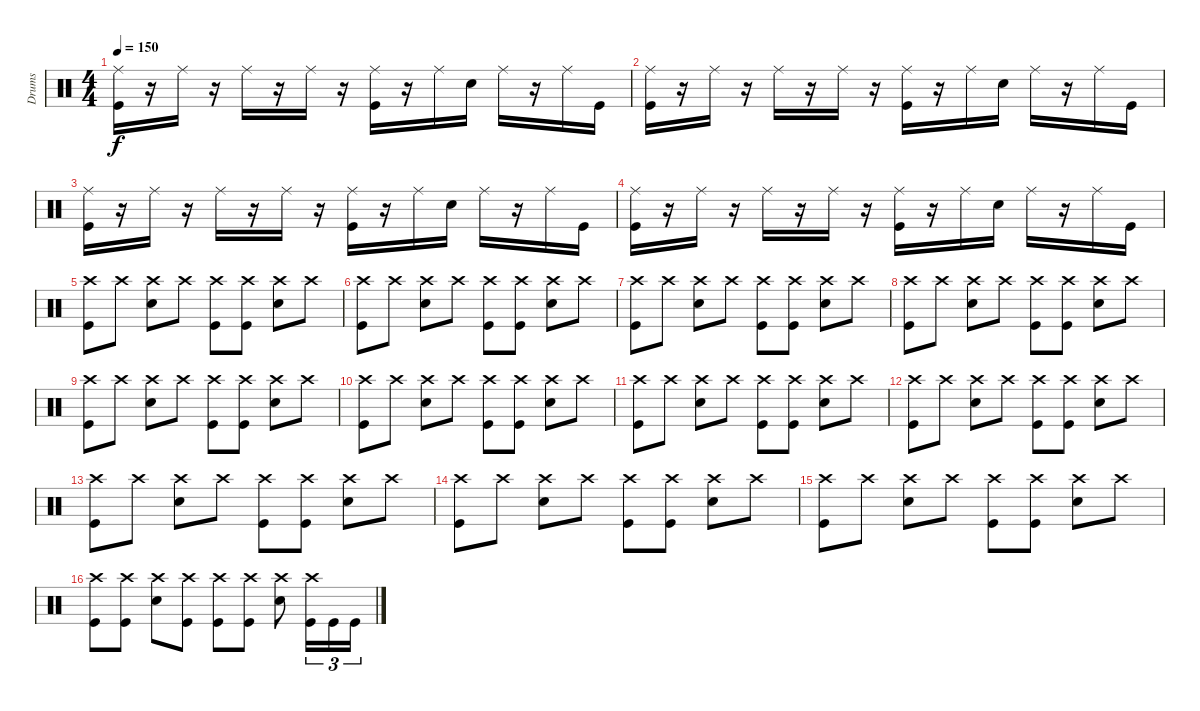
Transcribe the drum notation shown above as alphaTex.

\track ("Drums" "Drums") {instrument percussion}
\staff {score}
\articulation defaults
\ts (4 4)
\tempo 150
\clef neutral
\ks c
("Ride (middle)" "Kick (hit)").16{dy f} r.16 "Ride (middle)".16 r.16 "Ride (middle)".16 r.16 "Ride (middle)".16 r.16 ("Ride (middle)" "Kick (hit)").16 r.16 "Ride (middle)".16 "Snare (hit) 2".16 "Ride (middle)".16 r.16 "Ride (middle)".16 "Kick (hit)".16 |
("Ride (middle)" "Kick (hit)").16 r.16 "Ride (middle)".16 r.16 "Ride (middle)".16 r.16 "Ride (middle)".16 r.16 ("Ride (middle)" "Kick (hit)").16 r.16 "Ride (middle)".16 "Snare (hit) 2".16 "Ride (middle)".16 r.16 "Ride (middle)".16 "Kick (hit)".16 |
("Ride (middle)" "Kick (hit)").16 r.16 "Ride (middle)".16 r.16 "Ride (middle)".16 r.16 "Ride (middle)".16 r.16 ("Ride (middle)" "Kick (hit)").16 r.16 "Ride (middle)".16 "Snare (hit) 2".16 "Ride (middle)".16 r.16 "Ride (middle)".16 "Kick (hit)".16 |
("Ride (middle)" "Kick (hit)").16 r.16 "Ride (middle)".16 r.16 "Ride (middle)".16 r.16 "Ride (middle)".16 r.16 ("Ride (middle)" "Kick (hit)").16 r.16 "Ride (middle)".16 "Snare (hit) 2".16 "Ride (middle)".16 r.16 "Ride (middle)".16 "Kick (hit)".16 |
("Crash high (hit)" "Kick (hit)").8 "Crash high (hit)".8 ("Crash high (hit)" "Snare (hit) 2").8 "Crash high (hit)".8 ("Crash high (hit)" "Kick (hit)").8 ("Crash high (hit)" "Kick (hit)").8 ("Crash high (hit)" "Snare (hit) 2").8 "Crash high (hit)".8 |
("Crash high (hit)" "Kick (hit)").8 "Crash high (hit)".8 ("Crash high (hit)" "Snare (hit) 2").8 "Crash high (hit)".8 ("Crash high (hit)" "Kick (hit)").8 ("Crash high (hit)" "Kick (hit)").8 ("Crash high (hit)" "Snare (hit) 2").8 "Crash high (hit)".8 |
("Crash high (hit)" "Kick (hit)").8 "Crash high (hit)".8 ("Crash high (hit)" "Snare (hit) 2").8 "Crash high (hit)".8 ("Crash high (hit)" "Kick (hit)").8 ("Crash high (hit)" "Kick (hit)").8 ("Crash high (hit)" "Snare (hit) 2").8 "Crash high (hit)".8 |
("Crash high (hit)" "Kick (hit)").8 "Crash high (hit)".8 ("Crash high (hit)" "Snare (hit) 2").8 "Crash high (hit)".8 ("Crash high (hit)" "Kick (hit)").8 ("Crash high (hit)" "Kick (hit)").8 ("Crash high (hit)" "Snare (hit) 2").8 "Crash high (hit)".8 |
("Crash high (hit)" "Kick (hit)").8 "Crash high (hit)".8 ("Crash high (hit)" "Snare (hit) 2").8 "Crash high (hit)".8 ("Crash high (hit)" "Kick (hit)").8 ("Crash high (hit)" "Kick (hit)").8 ("Crash high (hit)" "Snare (hit) 2").8 "Crash high (hit)".8 |
("Crash high (hit)" "Kick (hit)").8 "Crash high (hit)".8 ("Crash high (hit)" "Snare (hit) 2").8 "Crash high (hit)".8 ("Crash high (hit)" "Kick (hit)").8 ("Crash high (hit)" "Kick (hit)").8 ("Crash high (hit)" "Snare (hit) 2").8 "Crash high (hit)".8 |
("Crash high (hit)" "Kick (hit)").8 "Crash high (hit)".8 ("Crash high (hit)" "Snare (hit) 2").8 "Crash high (hit)".8 ("Crash high (hit)" "Kick (hit)").8 ("Crash high (hit)" "Kick (hit)").8 ("Crash high (hit)" "Snare (hit) 2").8 "Crash high (hit)".8 |
("Crash high (hit)" "Kick (hit)").8 "Crash high (hit)".8 ("Crash high (hit)" "Snare (hit) 2").8 "Crash high (hit)".8 ("Crash high (hit)" "Kick (hit)").8 ("Crash high (hit)" "Kick (hit)").8 ("Crash high (hit)" "Snare (hit) 2").8 "Crash high (hit)".8 |
("Crash high (hit)" "Kick (hit)").8 "Crash high (hit)".8 ("Crash high (hit)" "Snare (hit) 2").8 "Crash high (hit)".8 ("Crash high (hit)" "Kick (hit)").8 ("Crash high (hit)" "Kick (hit)").8 ("Crash high (hit)" "Snare (hit) 2").8 "Crash high (hit)".8 |
("Crash high (hit)" "Kick (hit)").8 "Crash high (hit)".8 ("Crash high (hit)" "Snare (hit) 2").8 "Crash high (hit)".8 ("Crash high (hit)" "Kick (hit)").8 ("Crash high (hit)" "Kick (hit)").8 ("Crash high (hit)" "Snare (hit) 2").8 "Crash high (hit)".8 |
("Crash high (hit)" "Kick (hit)").8 "Crash high (hit)".8 ("Crash high (hit)" "Snare (hit) 2").8 "Crash high (hit)".8 ("Crash high (hit)" "Kick (hit)").8 ("Crash high (hit)" "Kick (hit)").8 ("Crash high (hit)" "Snare (hit) 2").8 "Crash high (hit)".8 |
("Crash high (hit)" "Kick (hit)").8 ("Crash high (hit)" "Kick (hit)").8 ("Crash high (hit)" "Snare (hit) 2").8 ("Crash high (hit)" "Kick (hit)").8 ("Crash high (hit)" "Kick (hit)").8 ("Crash high (hit)" "Kick (hit)").8 ("Crash high (hit)" "Snare (hit) 2").8 ("Crash high (hit)" "Kick (hit)").16{tu (3 2)} "Kick (hit)".16{tu (3 2)} "Kick (hit)".16{tu (3 2)}
